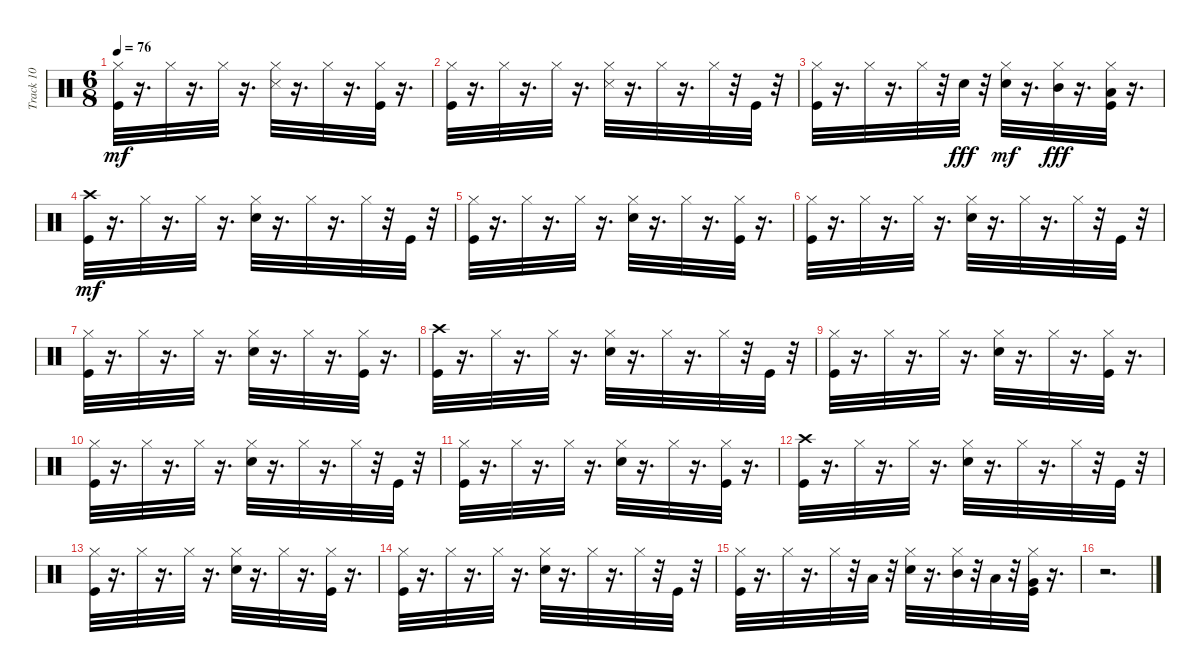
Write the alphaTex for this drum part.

\track ("Track 10" "Track 10") {instrument percussion}
\staff {score}
\articulation defaults
\ts (6 8)
\tempo 76
\clef neutral
\ks c
("Kick (hit)" "Hi-Hat (closed)").32{dy mf} r.16{d} "Hi-Hat (closed)".32 r.16{d} "Hi-Hat (closed)".32 r.16{d} ("Snare (side stick) 3" "Hi-Hat (closed)").32 r.16{d} "Hi-Hat (closed)".32 r.16{d} ("Kick (hit)" "Hi-Hat (closed)").32 r.16{d} |
("Kick (hit)" "Hi-Hat (closed)").32 r.16{d} "Hi-Hat (closed)".32 r.16{d} "Hi-Hat (closed)".32 r.16{d} ("Snare (side stick) 3" "Hi-Hat (closed)").32 r.16{d} "Hi-Hat (closed)".32 r.16{d} "Hi-Hat (closed)".32 r.32 "Kick (hit)".32 r.32 |
("Kick (hit)" "Hi-Hat (closed)").32 r.16{d} "Hi-Hat (closed)".32 r.16{d} "Hi-Hat (closed)".32 r.32 "Electric Snare (hit)".32{dy fff} r.32 ("Electric Snare (hit)" "Hi-Hat (closed)").32{dy mf} r.16{d} ("Hi-Hat (closed)" "Mid Tom (hit)").32{dy fff} r.16{d} ("Kick (hit)" "Hi-Hat (closed)" "Low Tom (hit)").32 r.16{d} |
("Kick (hit)" "Crash high (hit)").32{dy mf} r.16{d} "Hi-Hat (closed)".32 r.16{d} "Hi-Hat (closed)".32 r.16{d} ("Electric Snare (hit)" "Hi-Hat (closed)").32 r.16{d} "Hi-Hat (closed)".32 r.16{d} "Hi-Hat (closed)".32 r.32 "Kick (hit)".32 r.32 |
("Kick (hit)" "Hi-Hat (closed)").32 r.16{d} "Hi-Hat (closed)".32 r.16{d} "Hi-Hat (closed)".32 r.16{d} ("Electric Snare (hit)" "Hi-Hat (closed)").32 r.16{d} "Hi-Hat (closed)".32 r.16{d} ("Kick (hit)" "Hi-Hat (closed)").32 r.16{d} |
("Kick (hit)" "Hi-Hat (closed)").32 r.16{d} "Hi-Hat (closed)".32 r.16{d} "Hi-Hat (closed)".32 r.16{d} ("Electric Snare (hit)" "Hi-Hat (closed)").32 r.16{d} "Hi-Hat (closed)".32 r.16{d} "Hi-Hat (closed)".32 r.32 "Kick (hit)".32 r.32 |
("Kick (hit)" "Hi-Hat (closed)").32 r.16{d} "Hi-Hat (closed)".32 r.16{d} "Hi-Hat (closed)".32 r.16{d} ("Electric Snare (hit)" "Hi-Hat (closed)").32 r.16{d} "Hi-Hat (closed)".32 r.16{d} ("Kick (hit)" "Hi-Hat (closed)").32 r.16{d} |
("Kick (hit)" "Crash high (hit)").32 r.16{d} "Hi-Hat (closed)".32 r.16{d} "Hi-Hat (closed)".32 r.16{d} ("Electric Snare (hit)" "Hi-Hat (closed)").32 r.16{d} "Hi-Hat (closed)".32 r.16{d} "Hi-Hat (closed)".32 r.32 "Kick (hit)".32 r.32 |
("Kick (hit)" "Hi-Hat (closed)").32 r.16{d} "Hi-Hat (closed)".32 r.16{d} "Hi-Hat (closed)".32 r.16{d} ("Electric Snare (hit)" "Hi-Hat (closed)").32 r.16{d} "Hi-Hat (closed)".32 r.16{d} ("Kick (hit)" "Hi-Hat (closed)").32 r.16{d} |
("Kick (hit)" "Hi-Hat (closed)").32 r.16{d} "Hi-Hat (closed)".32 r.16{d} "Hi-Hat (closed)".32 r.16{d} ("Electric Snare (hit)" "Hi-Hat (closed)").32 r.16{d} "Hi-Hat (closed)".32 r.16{d} "Hi-Hat (closed)".32 r.32 "Kick (hit)".32 r.32 |
("Kick (hit)" "Hi-Hat (closed)").32 r.16{d} "Hi-Hat (closed)".32 r.16{d} "Hi-Hat (closed)".32 r.16{d} ("Electric Snare (hit)" "Hi-Hat (closed)").32 r.16{d} "Hi-Hat (closed)".32 r.16{d} ("Kick (hit)" "Hi-Hat (closed)").32 r.16{d} |
("Kick (hit)" "Crash high (hit)").32 r.16{d} "Hi-Hat (closed)".32 r.16{d} "Hi-Hat (closed)".32 r.16{d} ("Electric Snare (hit)" "Hi-Hat (closed)").32 r.16{d} "Hi-Hat (closed)".32 r.16{d} "Hi-Hat (closed)".32 r.32 "Kick (hit)".32 r.32 |
("Kick (hit)" "Hi-Hat (closed)").32 r.16{d} "Hi-Hat (closed)".32 r.16{d} "Hi-Hat (closed)".32 r.16{d} ("Electric Snare (hit)" "Hi-Hat (closed)").32 r.16{d} "Hi-Hat (closed)".32 r.16{d} ("Kick (hit)" "Hi-Hat (closed)").32 r.16{d} |
("Kick (hit)" "Hi-Hat (closed)").32 r.16{d} "Hi-Hat (closed)".32 r.16{d} "Hi-Hat (closed)".32 r.16{d} ("Electric Snare (hit)" "Hi-Hat (closed)").32 r.16{d} "Hi-Hat (closed)".32 r.16{d} "Hi-Hat (closed)".32 r.32 "Kick (hit)".32 r.32 |
("Kick (hit)" "Hi-Hat (closed)").32 r.16{d} "Hi-Hat (closed)".32 r.16{d} "Hi-Hat (closed)".32 r.32 "Low Tom (hit)".32 r.32 ("Electric Snare (hit)" "Hi-Hat (closed)").32 r.16{d} ("Hi-Hat (closed)" "Mid Tom (hit)").32 r.32 "Low Tom (hit)".32 r.32 ("Kick (hit)" "Hi-Hat (closed)" "Very Low Tom (hit)").32 r.16{d} |
r.2{d}
